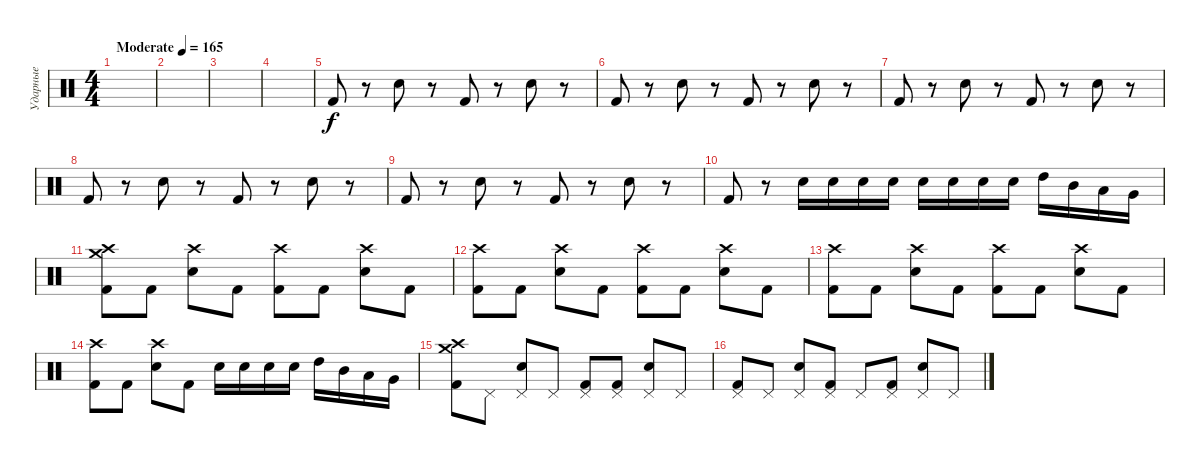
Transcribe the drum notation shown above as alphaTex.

\track ("Ударные" "Ударные") {instrument percussion}
\staff {score}
\articulation defaults
\ts (4 4)
\tempo (165 "Moderate")
\clef neutral
\ks c
|
|
|
|
"Kick (hit) 2".8 r.8 "Electric Snare (hit)".8 r.8 "Kick (hit) 2".8 r.8 "Electric Snare (hit)".8 r.8 |
"Kick (hit) 2".8 r.8 "Electric Snare (hit)".8 r.8 "Kick (hit) 2".8 r.8 "Electric Snare (hit)".8 r.8 |
"Kick (hit) 2".8 r.8 "Electric Snare (hit)".8 r.8 "Kick (hit) 2".8 r.8 "Electric Snare (hit)".8 r.8 |
"Kick (hit) 2".8 r.8 "Electric Snare (hit)".8 r.8 "Kick (hit) 2".8 r.8 "Electric Snare (hit)".8 r.8 |
"Kick (hit) 2".8 r.8 "Electric Snare (hit)".8 r.8 "Kick (hit) 2".8 r.8 "Electric Snare (hit)".8 r.8 |
"Kick (hit) 2".8 r.8 "Electric Snare (hit)".16 "Electric Snare (hit)".16 "Electric Snare (hit)".16 "Electric Snare (hit)".16 "Electric Snare (hit)".16 "Electric Snare (hit)".16 "Electric Snare (hit)".16 "Electric Snare (hit)".16 "High Tom (hit)".16 "Mid Tom (hit)".16 "Low Tom (hit)".16 "Very Low Tom (hit)".16 |
("Crash medium (hit)" "Crash high (hit)" "Kick (hit) 2").8 "Kick (hit) 2".8 ("Crash high (hit)" "Electric Snare (hit)").8 "Kick (hit) 2".8 ("Crash high (hit)" "Kick (hit) 2").8 "Kick (hit) 2".8 ("Crash high (hit)" "Electric Snare (hit)").8 "Kick (hit) 2".8 |
("Crash high (hit)" "Kick (hit) 2").8 "Kick (hit) 2".8 ("Crash high (hit)" "Electric Snare (hit)").8 "Kick (hit) 2".8 ("Crash high (hit)" "Kick (hit) 2").8 "Kick (hit) 2".8 ("Crash high (hit)" "Electric Snare (hit)").8 "Kick (hit) 2".8 |
("Crash high (hit)" "Kick (hit) 2").8 "Kick (hit) 2".8 ("Crash high (hit)" "Electric Snare (hit)").8 "Kick (hit) 2".8 ("Crash high (hit)" "Kick (hit) 2").8 "Kick (hit) 2".8 ("Crash high (hit)" "Electric Snare (hit)").8 "Kick (hit) 2".8 |
("Crash high (hit)" "Kick (hit) 2").8 "Kick (hit) 2".8 ("Crash high (hit)" "Electric Snare (hit)").8 "Kick (hit) 2".8 "Electric Snare (hit)".16 "Electric Snare (hit)".16 "Electric Snare (hit)".16 "Electric Snare (hit)".16 "High Tom (hit)".16 "Mid Tom (hit)".16 "Low Tom (hit)".16 "Very Low Tom (hit)".16 |
("Crash medium (hit)" "Crash high (hit)" "Kick (hit) 2").8 "Pedal Hi-Hat (hit)".8 ("Pedal Hi-Hat (hit)" "Electric Snare (hit)").8 "Pedal Hi-Hat (hit)".8 ("Pedal Hi-Hat (hit)" "Kick (hit) 2").8 ("Pedal Hi-Hat (hit)" "Kick (hit) 2").8 ("Pedal Hi-Hat (hit)" "Electric Snare (hit)").8 "Pedal Hi-Hat (hit)".8 |
("Pedal Hi-Hat (hit)" "Kick (hit) 2").8 "Pedal Hi-Hat (hit)".8 ("Pedal Hi-Hat (hit)" "Electric Snare (hit)").8 ("Pedal Hi-Hat (hit)" "Kick (hit) 2").8 "Pedal Hi-Hat (hit)".8 ("Pedal Hi-Hat (hit)" "Kick (hit) 2").8 ("Pedal Hi-Hat (hit)" "Electric Snare (hit)").8 "Pedal Hi-Hat (hit)".8
